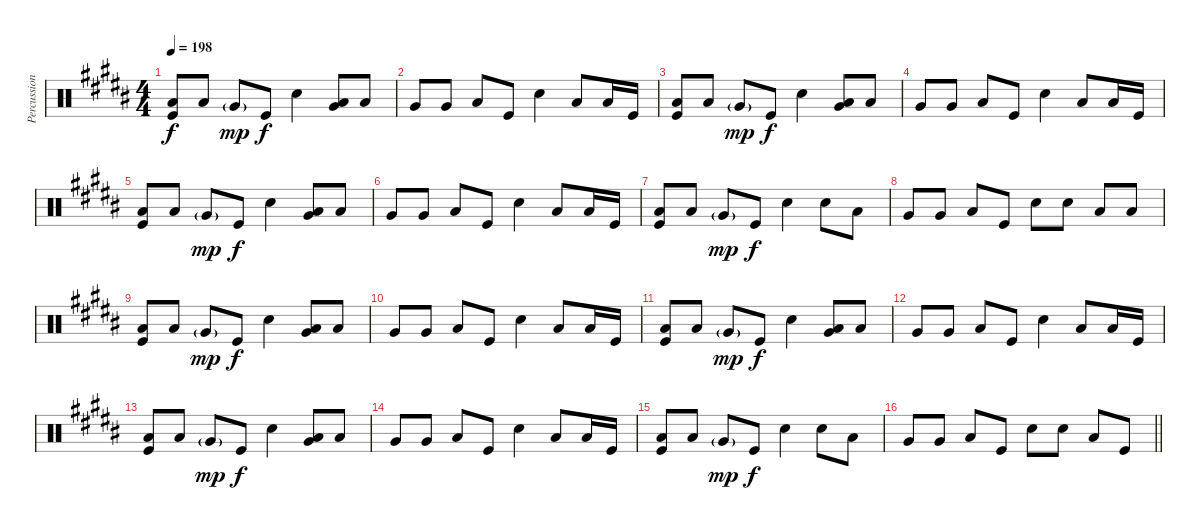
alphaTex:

\track ("Percussion" "Percussion") {instrument percussion}
\staff {score}
\articulation defaults
\ts (4 4)
\tempo 198
\clef neutral
\ks b
("Low Tom (hit)" "Kick (hit)").8{dy f} "Low Tom (hit)".8 "Very Low Tom (hit)"{g}.8{dy mp} "Kick (hit)".8{dy f} "Electric Snare (hit)".4 ("Very Low Tom (hit)" "Low Floor Tom (hit)").8 "Low Tom (hit)".8 |
"Very Low Tom (hit)".8 "Very Low Tom (hit)".8 "Low Floor Tom (hit)".8 "Kick (hit)".8 "Electric Snare (hit)".4 "Low Tom (hit)".8 "Low Floor Tom (hit)".16 "Kick (hit)".16 |
("Low Tom (hit)" "Kick (hit)").8 "Low Tom (hit)".8 "Very Low Tom (hit)"{g}.8{dy mp} "Kick (hit)".8{dy f} "Electric Snare (hit)".4 ("Very Low Tom (hit)" "Low Floor Tom (hit)").8 "Low Tom (hit)".8 |
"Very Low Tom (hit)".8 "Very Low Tom (hit)".8 "Low Floor Tom (hit)".8 "Kick (hit)".8 "Electric Snare (hit)".4 "Low Tom (hit)".8 "Low Floor Tom (hit)".16 "Kick (hit)".16 |
("Low Tom (hit)" "Kick (hit)").8 "Low Tom (hit)".8 "Very Low Tom (hit)"{g}.8{dy mp} "Kick (hit)".8{dy f} "Electric Snare (hit)".4 ("Very Low Tom (hit)" "Low Floor Tom (hit)").8 "Low Tom (hit)".8 |
"Very Low Tom (hit)".8 "Very Low Tom (hit)".8 "Low Floor Tom (hit)".8 "Kick (hit)".8 "Electric Snare (hit)".4 "Low Tom (hit)".8 "Low Floor Tom (hit)".16 "Kick (hit)".16 |
("Low Tom (hit)" "Kick (hit)").8 "Low Tom (hit)".8 "Very Low Tom (hit)"{g}.8{dy mp} "Kick (hit)".8{dy f} "Electric Snare (hit)".4 "Electric Snare (hit)".8 "Low Tom (hit)".8 |
"Very Low Tom (hit)".8 "Very Low Tom (hit)".8 "Low Floor Tom (hit)".8 "Kick (hit)".8 "Electric Snare (hit)".8 "Electric Snare (hit)".8 "Low Tom (hit)".8 "Low Floor Tom (hit)".8 |
("Low Tom (hit)" "Kick (hit)").8 "Low Tom (hit)".8 "Very Low Tom (hit)"{g}.8{dy mp} "Kick (hit)".8{dy f} "Electric Snare (hit)".4 ("Very Low Tom (hit)" "Low Floor Tom (hit)").8 "Low Tom (hit)".8 |
"Very Low Tom (hit)".8 "Very Low Tom (hit)".8 "Low Floor Tom (hit)".8 "Kick (hit)".8 "Electric Snare (hit)".4 "Low Tom (hit)".8 "Low Floor Tom (hit)".16 "Kick (hit)".16 |
("Low Tom (hit)" "Kick (hit)").8 "Low Tom (hit)".8 "Very Low Tom (hit)"{g}.8{dy mp} "Kick (hit)".8{dy f} "Electric Snare (hit)".4 ("Very Low Tom (hit)" "Low Floor Tom (hit)").8 "Low Tom (hit)".8 |
"Very Low Tom (hit)".8 "Very Low Tom (hit)".8 "Low Floor Tom (hit)".8 "Kick (hit)".8 "Electric Snare (hit)".4 "Low Tom (hit)".8 "Low Floor Tom (hit)".16 "Kick (hit)".16 |
("Low Tom (hit)" "Kick (hit)").8 "Low Tom (hit)".8 "Very Low Tom (hit)"{g}.8{dy mp} "Kick (hit)".8{dy f} "Electric Snare (hit)".4 ("Very Low Tom (hit)" "Low Floor Tom (hit)").8 "Low Tom (hit)".8 |
"Very Low Tom (hit)".8 "Very Low Tom (hit)".8 "Low Floor Tom (hit)".8 "Kick (hit)".8 "Electric Snare (hit)".4 "Low Tom (hit)".8 "Low Floor Tom (hit)".16 "Kick (hit)".16 |
("Low Tom (hit)" "Kick (hit)").8 "Low Tom (hit)".8 "Very Low Tom (hit)"{g}.8{dy mp} "Kick (hit)".8{dy f} "Electric Snare (hit)".4 "Electric Snare (hit)".8 "Low Tom (hit)".8 |
\barLineRight lightlight "Very Low Tom (hit)".8 "Very Low Tom (hit)".8 "Low Floor Tom (hit)".8 "Kick (hit)".8 "Electric Snare (hit)".8 "Electric Snare (hit)".8 "Low Tom (hit)".8 "Kick (hit)".8
